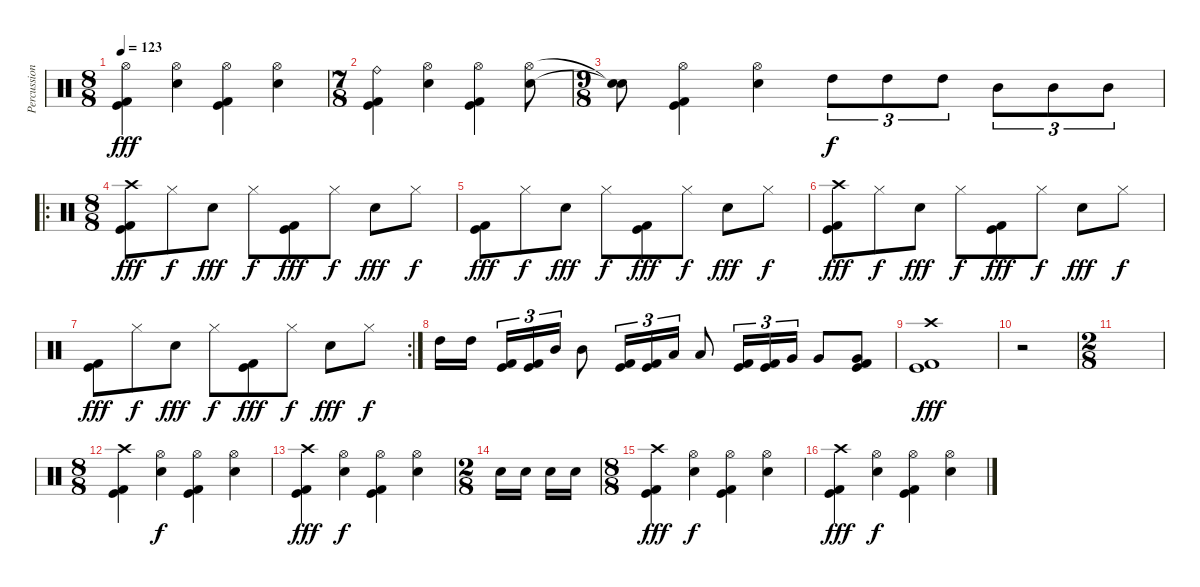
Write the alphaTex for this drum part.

\track ("Percussion" "Percussion") {instrument percussion}
\staff {score}
\articulation defaults
\ts (8 8)
\tempo 123
\clef neutral
\ks c
("Hi-Hat (open)" "Kick (hit) 2" "Kick (hit)").4{dy fff} ("Hi-Hat (open)" "Electric Snare (hit)").4 ("Hi-Hat (open)" "Kick (hit) 2" "Kick (hit)").4 ("Hi-Hat (open)" "Electric Snare (hit)").4 |
\ts (7 8)
("Ride (bell)" "Kick (hit) 2" "Kick (hit)").4 ("Hi-Hat (open)" "Electric Snare (hit)").4 ("Hi-Hat (open)" "Kick (hit) 2" "Kick (hit)").4 ("Hi-Hat (open)" "Electric Snare (hit)").8 |
\ts (9 8)
("Snare (hit)"{t} "Snare (hit)"{t}).8 ("Hi-Hat (open)" "Kick (hit) 2" "Kick (hit)").4 ("Hi-Hat (open)" "Electric Snare (hit)").4 "High Tom (hit)".8{tu (3 2) dy f} "High Tom (hit)".8{tu (3 2)} "High Tom (hit)".8{tu (3 2)} "Mid Tom (hit)".8{tu (3 2)} "Mid Tom (hit)".8{tu (3 2)} "Mid Tom (hit)".8{tu (3 2)} |
\ro
\ts (8 8)
("Crash high (hit)" "Kick (hit) 2" "Kick (hit)").8{dy fff} "Hi-Hat (closed)".8{dy f} "Electric Snare (hit)".8{dy fff} "Hi-Hat (closed)".8{dy f} ("Kick (hit) 2" "Kick (hit)").8{dy fff} "Hi-Hat (closed)".8{dy f} "Electric Snare (hit)".8{dy fff} "Hi-Hat (closed)".8{dy f} |
("Kick (hit) 2" "Kick (hit)").8{dy fff} "Hi-Hat (closed)".8{dy f} "Electric Snare (hit)".8{dy fff} "Hi-Hat (closed)".8{dy f} ("Kick (hit) 2" "Kick (hit)").8{dy fff} "Hi-Hat (closed)".8{dy f} "Electric Snare (hit)".8{dy fff} "Hi-Hat (closed)".8{dy f} |
("Crash high (hit)" "Kick (hit) 2" "Kick (hit)").8{dy fff} "Hi-Hat (closed)".8{dy f} "Electric Snare (hit)".8{dy fff} "Hi-Hat (closed)".8{dy f} ("Kick (hit) 2" "Kick (hit)").8{dy fff} "Hi-Hat (closed)".8{dy f} "Electric Snare (hit)".8{dy fff} "Hi-Hat (closed)".8{dy f} |
\rc 2
("Kick (hit) 2" "Kick (hit)").8{dy fff} "Hi-Hat (closed)".8{dy f} "Electric Snare (hit)".8{dy fff} "Hi-Hat (closed)".8{dy f} ("Kick (hit) 2" "Kick (hit)").8{dy fff} "Hi-Hat (closed)".8{dy f} "Electric Snare (hit)".8{dy fff} "Hi-Hat (closed)".8{dy f} |
"High Tom (hit)".16 "High Tom (hit)".16 ("Kick (hit) 2" "Kick (hit)").16{tu (3 2)} ("Kick (hit) 2" "Kick (hit)").16{tu (3 2)} "Mid Tom (hit)".16{tu (3 2)} "Mid Tom (hit)".8 ("Kick (hit) 2" "Kick (hit)").16{tu (3 2)} ("Kick (hit) 2" "Kick (hit)").16{tu (3 2)} "Low Tom (hit)".16{tu (3 2)} "Low Tom (hit)".8 ("Kick (hit) 2" "Kick (hit)").16{tu (3 2)} ("Kick (hit) 2" "Kick (hit)").16{tu (3 2)} "Very Low Tom (hit)".16{tu (3 2)} "Very Low Tom (hit)".8 ("Very Low Tom (hit)" "Kick (hit)" "Kick (hit) 2").8 |
("Crash high (hit)" "Kick (hit) 2" "Kick (hit)").1{dy fff} |
r.2 |
\ts (2 8)
|
\ts (8 8)
("Crash high (hit)" "Kick (hit) 2" "Kick (hit)").4 ("Hi-Hat (open)" "Electric Snare (hit)").4{dy f} ("Hi-Hat (open)" "Kick (hit)" "Kick (hit) 2").4 ("Hi-Hat (open)" "Electric Snare (hit)").4 |
("Crash high (hit)" "Kick (hit) 2" "Kick (hit)").4{dy fff} ("Hi-Hat (open)" "Electric Snare (hit)").4{dy f} ("Hi-Hat (open)" "Kick (hit)" "Kick (hit) 2").4 ("Hi-Hat (open)" "Electric Snare (hit)").4 |
\ts (2 8)
"Electric Snare (hit)".16 "Electric Snare (hit)".16 "Electric Snare (hit)".16 "Electric Snare (hit)".16 |
\ts (8 8)
("Crash high (hit)" "Kick (hit) 2" "Kick (hit)").4{dy fff} ("Hi-Hat (open)" "Electric Snare (hit)").4{dy f} ("Hi-Hat (open)" "Kick (hit)" "Kick (hit) 2").4 ("Hi-Hat (open)" "Electric Snare (hit)").4 |
("Crash high (hit)" "Kick (hit) 2" "Kick (hit)").4{dy fff} ("Hi-Hat (open)" "Electric Snare (hit)").4{dy f} ("Hi-Hat (open)" "Kick (hit)" "Kick (hit) 2").4 ("Hi-Hat (open)" "Electric Snare (hit)").4
